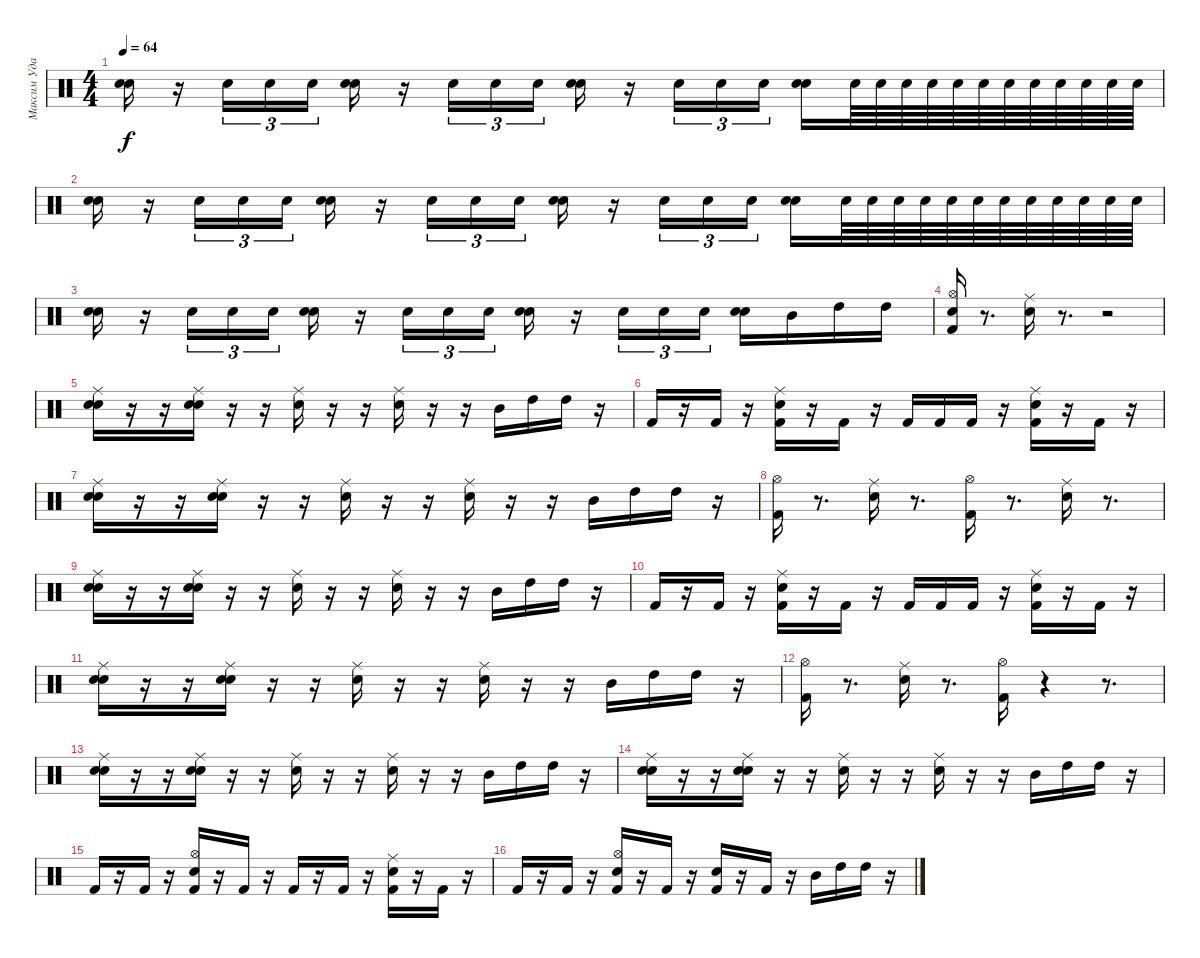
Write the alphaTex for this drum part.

\track ("Максим Удалов" "Максим Уда") {instrument percussion}
\staff {score}
\articulation defaults
\ts (4 4)
\tempo 64
\clef neutral
\ks c
("Electric Snare (hit)" "Electric Snare (hit)").16{dy f} r.16 "Electric Snare (hit)".16{tu (3 2)} "Electric Snare (hit)".16{tu (3 2)} "Electric Snare (hit)".16{tu (3 2)} ("Electric Snare (hit)" "Electric Snare (hit)").16 r.16 "Electric Snare (hit)".16{tu (3 2)} "Electric Snare (hit)".16{tu (3 2)} "Electric Snare (hit)".16{tu (3 2)} ("Electric Snare (hit)" "Electric Snare (hit)").16 r.16 "Electric Snare (hit)".16{tu (3 2)} "Electric Snare (hit)".16{tu (3 2)} "Electric Snare (hit)".16{tu (3 2)} ("Electric Snare (hit)" "Electric Snare (hit)").16 "Snare (hit) 2".64 "Snare (hit) 2".64 "Snare (hit) 2".64 "Snare (hit) 2".64 "Snare (hit) 2".64 "Snare (hit) 2".64 "Snare (hit) 2".64 "Snare (hit) 2".64 "Snare (hit) 2".64 "Snare (hit) 2".64 "Snare (hit) 2".64 "Snare (hit) 2".64 |
("Electric Snare (hit)" "Electric Snare (hit)").16 r.16 "Electric Snare (hit)".16{tu (3 2)} "Electric Snare (hit)".16{tu (3 2)} "Electric Snare (hit)".16{tu (3 2)} ("Electric Snare (hit)" "Electric Snare (hit)").16 r.16 "Electric Snare (hit)".16{tu (3 2)} "Electric Snare (hit)".16{tu (3 2)} "Electric Snare (hit)".16{tu (3 2)} ("Electric Snare (hit)" "Electric Snare (hit)").16 r.16 "Electric Snare (hit)".16{tu (3 2)} "Electric Snare (hit)".16{tu (3 2)} "Electric Snare (hit)".16{tu (3 2)} ("Electric Snare (hit)" "Electric Snare (hit)").16 "Snare (hit) 2".64 "Snare (hit) 2".64 "Snare (hit) 2".64 "Snare (hit) 2".64 "Snare (hit) 2".64 "Snare (hit) 2".64 "Snare (hit) 2".64 "Snare (hit) 2".64 "Snare (hit) 2".64 "Snare (hit) 2".64 "Snare (hit) 2".64 "Snare (hit) 2".64 |
("Electric Snare (hit)" "Electric Snare (hit)").16 r.16 "Electric Snare (hit)".16{tu (3 2)} "Electric Snare (hit)".16{tu (3 2)} "Electric Snare (hit)".16{tu (3 2)} ("Electric Snare (hit)" "Electric Snare (hit)").16 r.16 "Electric Snare (hit)".16{tu (3 2)} "Electric Snare (hit)".16{tu (3 2)} "Electric Snare (hit)".16{tu (3 2)} ("Electric Snare (hit)" "Electric Snare (hit)").16 r.16 "Electric Snare (hit)".16{tu (3 2)} "Electric Snare (hit)".16{tu (3 2)} "Electric Snare (hit)".16{tu (3 2)} ("Electric Snare (hit)" "Electric Snare (hit)").16 "Mid Tom (hit)".16 "High Tom (hit)".16 "High Tom (hit)".16 |
("Hi-Hat (open)" "Electric Snare (hit)" "Kick (hit) 2").16 r.8{d} ("Ride (middle)" "Electric Snare (hit)").16 r.8{d} r.2 |
("Electric Snare (hit)" "Electric Snare (hit)" "Ride (middle)").16 r.16 r.16 ("Electric Snare (hit)" "Electric Snare (hit)" "Ride (middle)").16 r.16 r.16 ("Electric Snare (hit)" "Ride (middle)").16 r.16 r.16 ("Electric Snare (hit)" "Ride (middle)").16 r.16 r.16 "Mid Tom (hit)".16 "High Tom (hit)".16 "High Tom (hit)".16 r.16 |
"Kick (hit) 2".16 r.16 "Kick (hit) 2".16 r.16 ("Kick (hit) 2" "Electric Snare (hit)" "Ride (middle)").16 r.16 "Kick (hit) 2".16 r.16 "Kick (hit) 2".16 "Kick (hit) 2".16 "Kick (hit) 2".16 r.16 ("Kick (hit) 2" "Electric Snare (hit)" "Ride (middle)").16 r.16 "Kick (hit) 2".16 r.16 |
("Electric Snare (hit)" "Electric Snare (hit)" "Ride (middle)").16 r.16 r.16 ("Electric Snare (hit)" "Electric Snare (hit)" "Ride (middle)").16 r.16 r.16 ("Electric Snare (hit)" "Ride (middle)").16 r.16 r.16 ("Electric Snare (hit)" "Ride (middle)").16 r.16 r.16 "Mid Tom (hit)".16 "High Tom (hit)".16 "High Tom (hit)".16 r.16 |
("Hi-Hat (open)" "Kick (hit) 2").16 r.8{d} ("Electric Snare (hit)" "Ride (middle)").16 r.8{d} ("Kick (hit) 2" "Hi-Hat (open)").16 r.8{d} ("Electric Snare (hit)" "Ride (middle)").16 r.8{d} |
("Electric Snare (hit)" "Electric Snare (hit)" "Ride (middle)").16 r.16 r.16 ("Electric Snare (hit)" "Electric Snare (hit)" "Ride (middle)").16 r.16 r.16 ("Electric Snare (hit)" "Ride (middle)").16 r.16 r.16 ("Electric Snare (hit)" "Ride (middle)").16 r.16 r.16 "Mid Tom (hit)".16 "High Tom (hit)".16 "High Tom (hit)".16 r.16 |
"Kick (hit) 2".16 r.16 "Kick (hit) 2".16 r.16 ("Kick (hit) 2" "Electric Snare (hit)" "Ride (middle)").16 r.16 "Kick (hit) 2".16 r.16 "Kick (hit) 2".16 "Kick (hit) 2".16 "Kick (hit) 2".16 r.16 ("Kick (hit) 2" "Electric Snare (hit)" "Ride (middle)").16 r.16 "Kick (hit) 2".16 r.16 |
("Electric Snare (hit)" "Electric Snare (hit)" "Ride (middle)").16 r.16 r.16 ("Electric Snare (hit)" "Electric Snare (hit)" "Ride (middle)").16 r.16 r.16 ("Electric Snare (hit)" "Ride (middle)").16 r.16 r.16 ("Electric Snare (hit)" "Ride (middle)").16 r.16 r.16 "Mid Tom (hit)".16 "High Tom (hit)".16 "High Tom (hit)".16 r.16 |
("Hi-Hat (open)" "Kick (hit) 2").16 r.8{d} ("Electric Snare (hit)" "Ride (middle)").16 r.8{d} ("Kick (hit) 2" "Hi-Hat (open)").16 r.4 r.8{d} |
("Electric Snare (hit)" "Electric Snare (hit)" "Ride (middle)").16 r.16 r.16 ("Electric Snare (hit)" "Electric Snare (hit)" "Ride (middle)").16 r.16 r.16 ("Electric Snare (hit)" "Ride (middle)").16 r.16 r.16 ("Electric Snare (hit)" "Ride (middle)").16 r.16 r.16 "Mid Tom (hit)".16 "High Tom (hit)".16 "High Tom (hit)".16 r.16 |
("Electric Snare (hit)" "Electric Snare (hit)" "Ride (middle)").16 r.16 r.16 ("Electric Snare (hit)" "Electric Snare (hit)" "Ride (middle)").16 r.16 r.16 ("Electric Snare (hit)" "Ride (middle)").16 r.16 r.16 ("Electric Snare (hit)" "Ride (middle)").16 r.16 r.16 "Mid Tom (hit)".16 "High Tom (hit)".16 "High Tom (hit)".16 r.16 |
"Kick (hit) 2".16 r.16 "Kick (hit) 2".16 r.16 ("Electric Snare (hit)" "Hi-Hat (open)" "Kick (hit) 2").16 r.16 "Kick (hit) 2".16 r.16 "Kick (hit) 2".16 r.16 "Kick (hit) 2".16 r.16 ("Kick (hit) 2" "Electric Snare (hit)" "Ride (middle)").16 r.16 "Kick (hit) 2".16 r.16 |
"Kick (hit) 2".16 r.16 "Kick (hit) 2".16 r.16 ("Kick (hit) 2" "Electric Snare (hit)" "Hi-Hat (open)").16 r.16 "Kick (hit) 2".16 r.16 ("Kick (hit) 2" "Electric Snare (hit)").16 r.16 "Kick (hit) 2".16 r.16 "Mid Tom (hit)".16 "High Tom (hit)".16 "High Tom (hit)".16 r.16
